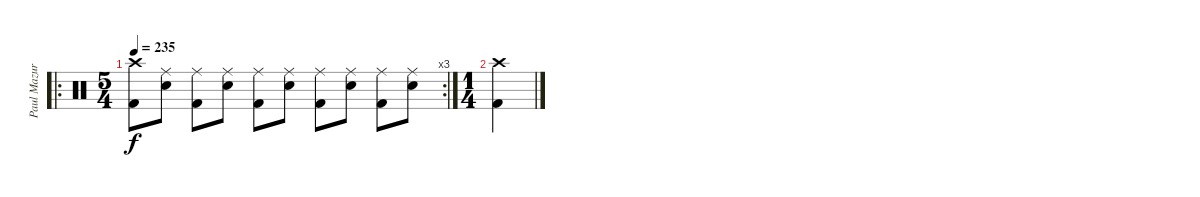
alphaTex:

\track ("Paul Mazurkiewicz" "Paul Mazur") {instrument percussion}
\staff {score}
\articulation defaults
\ro
\rc 3
\ts (5 4)
\tempo 235
\clef neutral
\ks c
("Crash high (hit)" "Kick (hit) 2").8{dy f} ("Ride (middle)" "Electric Snare (hit)").8 ("Ride (middle)" "Kick (hit) 2").8 ("Ride (middle)" "Electric Snare (hit)").8 ("Ride (middle)" "Kick (hit) 2").8 ("Ride (middle)" "Electric Snare (hit)").8 ("Ride (middle)" "Kick (hit) 2").8 ("Ride (middle)" "Electric Snare (hit)").8 ("Ride (middle)" "Kick (hit) 2").8 ("Ride (middle)" "Electric Snare (hit)").8 |
\ts (1 4)
("Crash high (hit)" "Kick (hit) 2").4
